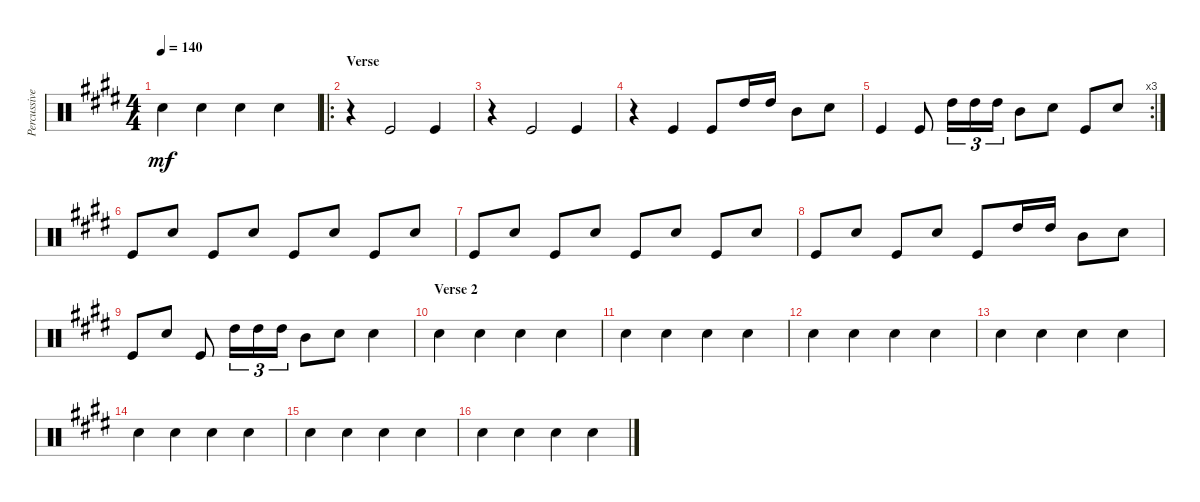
\track ("Percussives" "Percussive") {instrument percussion}
\staff {score}
\articulation defaults
\ts (4 4)
\tempo 140
\clef neutral
\ks e "Snare (hit) 2".4{dy mf} "Snare (hit) 2".4 "Snare (hit) 2".4 "Snare (hit) 2".4
|
\ro
\section ("" "Verse")
r.4 "Kick (hit)".2 "Kick (hit)".4 |
r.4 "Kick (hit)".2 "Kick (hit)".4 |
r.4 "Kick (hit)".4 "Kick (hit)".8 "High Tom (hit)".16 "High Tom (hit)".16 "Mid Tom (hit)".8 "Snare (hit) 2".8 |
\rc 3 "Kick (hit)".4 "Kick (hit)".8 "High Tom (hit)".16{tu (3 2)} "High Tom (hit)".16{tu (3 2)} "High Tom (hit)".16{tu (3 2)} "Mid Tom (hit)".8 "Snare (hit) 2".8 "Kick (hit)".8 "Snare (hit) 2".8
|
"Kick (hit)".8 "Snare (hit) 2".8 "Kick (hit)".8 "Snare (hit) 2".8 "Kick (hit)".8 "Snare (hit) 2".8 "Kick (hit)".8 "Snare (hit) 2".8 |
"Kick (hit)".8 "Snare (hit) 2".8 "Kick (hit)".8 "Snare (hit) 2".8 "Kick (hit)".8 "Snare (hit) 2".8 "Kick (hit)".8 "Snare (hit) 2".8 |
"Kick (hit)".8 "Snare (hit) 2".8 "Kick (hit)".8 "Snare (hit) 2".8 "Kick (hit)".8 "High Tom (hit)".16 "High Tom (hit)".16 "Mid Tom (hit)".8 "Snare (hit) 2".8 |
"Kick (hit)".8 "Snare (hit) 2".8 "Kick (hit)".8 "High Tom (hit)".16{tu (3 2)} "High Tom (hit)".16{tu (3 2)} "High Tom (hit)".16{tu (3 2)} "Mid Tom (hit)".8 "Snare (hit) 2".8 "Snare (hit) 2".4 |
\section ("" "Verse 2")
"Snare (hit) 2".4 "Snare (hit) 2".4 "Snare (hit) 2".4 "Snare (hit) 2".4 |
"Snare (hit) 2".4 "Snare (hit) 2".4 "Snare (hit) 2".4 "Snare (hit) 2".4 |
"Snare (hit) 2".4 "Snare (hit) 2".4 "Snare (hit) 2".4 "Snare (hit) 2".4 |
"Snare (hit) 2".4 "Snare (hit) 2".4 "Snare (hit) 2".4 "Snare (hit) 2".4 |
"Snare (hit) 2".4 "Snare (hit) 2".4 "Snare (hit) 2".4 "Snare (hit) 2".4 |
"Snare (hit) 2".4 "Snare (hit) 2".4 "Snare (hit) 2".4 "Snare (hit) 2".4 |
"Snare (hit) 2".4 "Snare (hit) 2".4 "Snare (hit) 2".4 "Snare (hit) 2".4
